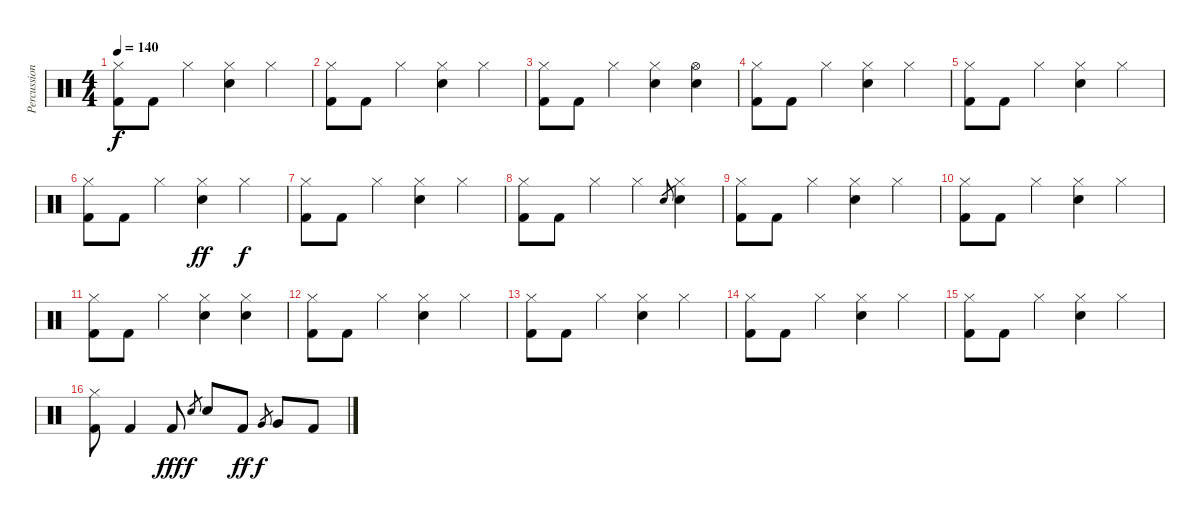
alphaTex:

\track ("Percussion" "Percussion") {instrument percussion}
\staff {score}
\articulation defaults
\ts (4 4)
\tempo 140
\clef neutral
\ks c
("Hi-Hat (closed)" "Kick (hit) 2").8{dy f} "Kick (hit) 2".8 "Hi-Hat (closed)".4 ("Hi-Hat (closed)" "Electric Snare (hit)").4 "Hi-Hat (closed)".4 |
("Hi-Hat (closed)" "Kick (hit) 2").8 "Kick (hit) 2".8 "Hi-Hat (closed)".4 ("Hi-Hat (closed)" "Electric Snare (hit)").4 "Hi-Hat (closed)".4 |
("Hi-Hat (closed)" "Kick (hit) 2").8 "Kick (hit) 2".8 "Hi-Hat (closed)".4 ("Hi-Hat (closed)" "Electric Snare (hit)").4 ("Hi-Hat (open)" "Electric Snare (hit)").4 |
("Hi-Hat (closed)" "Kick (hit) 2").8 "Kick (hit) 2".8 "Hi-Hat (closed)".4 ("Hi-Hat (closed)" "Electric Snare (hit)").4 "Hi-Hat (closed)".4 |
("Hi-Hat (closed)" "Kick (hit) 2").8 "Kick (hit) 2".8 "Hi-Hat (closed)".4 ("Hi-Hat (closed)" "Electric Snare (hit)").4 "Hi-Hat (closed)".4 |
("Hi-Hat (closed)" "Kick (hit) 2").8 "Kick (hit) 2".8 "Hi-Hat (closed)".4 ("Hi-Hat (closed)" "Electric Snare (hit)").4{dy ff} "Hi-Hat (closed)".4{dy f} |
("Hi-Hat (closed)" "Kick (hit) 2").8 "Kick (hit) 2".8 "Hi-Hat (closed)".4 ("Hi-Hat (closed)" "Electric Snare (hit)").4 "Hi-Hat (closed)".4 |
("Hi-Hat (closed)" "Kick (hit) 2").8 "Kick (hit) 2".8 "Hi-Hat (closed)".4 "Hi-Hat (closed)".4 "Electric Snare (hit)".8{gr} ("Hi-Hat (closed)" "Electric Snare (hit)").4 |
("Hi-Hat (closed)" "Kick (hit) 2").8 "Kick (hit) 2".8 "Hi-Hat (closed)".4 ("Hi-Hat (closed)" "Electric Snare (hit)").4 "Hi-Hat (closed)".4 |
("Hi-Hat (closed)" "Kick (hit) 2").8 "Kick (hit) 2".8 "Hi-Hat (closed)".4 ("Hi-Hat (closed)" "Electric Snare (hit)").4 "Hi-Hat (closed)".4 |
("Hi-Hat (closed)" "Kick (hit) 2").8 "Kick (hit) 2".8 "Hi-Hat (closed)".4 ("Hi-Hat (closed)" "Electric Snare (hit)").4 ("Hi-Hat (closed)" "Electric Snare (hit)").4 |
("Hi-Hat (closed)" "Kick (hit) 2").8 "Kick (hit) 2".8 "Hi-Hat (closed)".4 ("Hi-Hat (closed)" "Electric Snare (hit)").4 "Hi-Hat (closed)".4 |
("Hi-Hat (closed)" "Kick (hit) 2").8 "Kick (hit) 2".8 "Hi-Hat (closed)".4 ("Hi-Hat (closed)" "Electric Snare (hit)").4 "Hi-Hat (closed)".4 |
("Hi-Hat (closed)" "Kick (hit) 2").8 "Kick (hit) 2".8 "Hi-Hat (closed)".4 ("Hi-Hat (closed)" "Electric Snare (hit)").4 "Hi-Hat (closed)".4 |
("Hi-Hat (closed)" "Kick (hit) 2").8 "Kick (hit) 2".8 "Hi-Hat (closed)".4 ("Hi-Hat (closed)" "Electric Snare (hit)").4 "Hi-Hat (closed)".4 |
("Hi-Hat (closed)" "Kick (hit) 2").8 "Kick (hit) 2".4 "Kick (hit) 2".8{dy fff} "Electric Snare (hit)".8{gr dy f} "Electric Snare (hit)".8 "Kick (hit) 2".8{dy ff} "Very Low Tom (hit)".8{gr dy f} "Very Low Tom (hit)".8 "Kick (hit) 2".8
